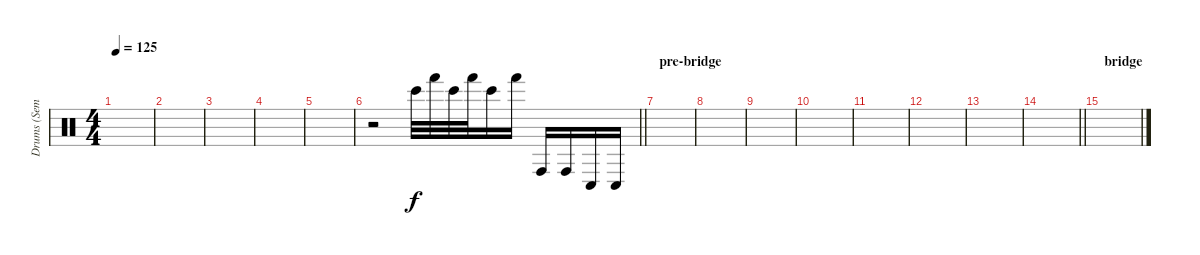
\track ("Drums (Semple)" "Drums (Sem") {instrument percussion}
\staff {score}
\articulation defaults
\ts (4 4)
\tempo 125
\clef neutral
\ks c
|
|
|
|
|
\barLineRight lightlight
r.2 "Bongo High (hit)".32 "Hand (hit)".32 "Bongo High (hit)".32 "Hand (hit)".32 "Bongo High (hit)".16 "Hand (hit)".16 "Conga high (hit)".16 "Conga high (hit)".16 "Conga low (hit)".16 "Conga low (hit)".16 |
\section ("" "pre-bridge")
|
|
|
|
|
|
|
\barLineRight lightlight
|
\section ("" "bridge")
